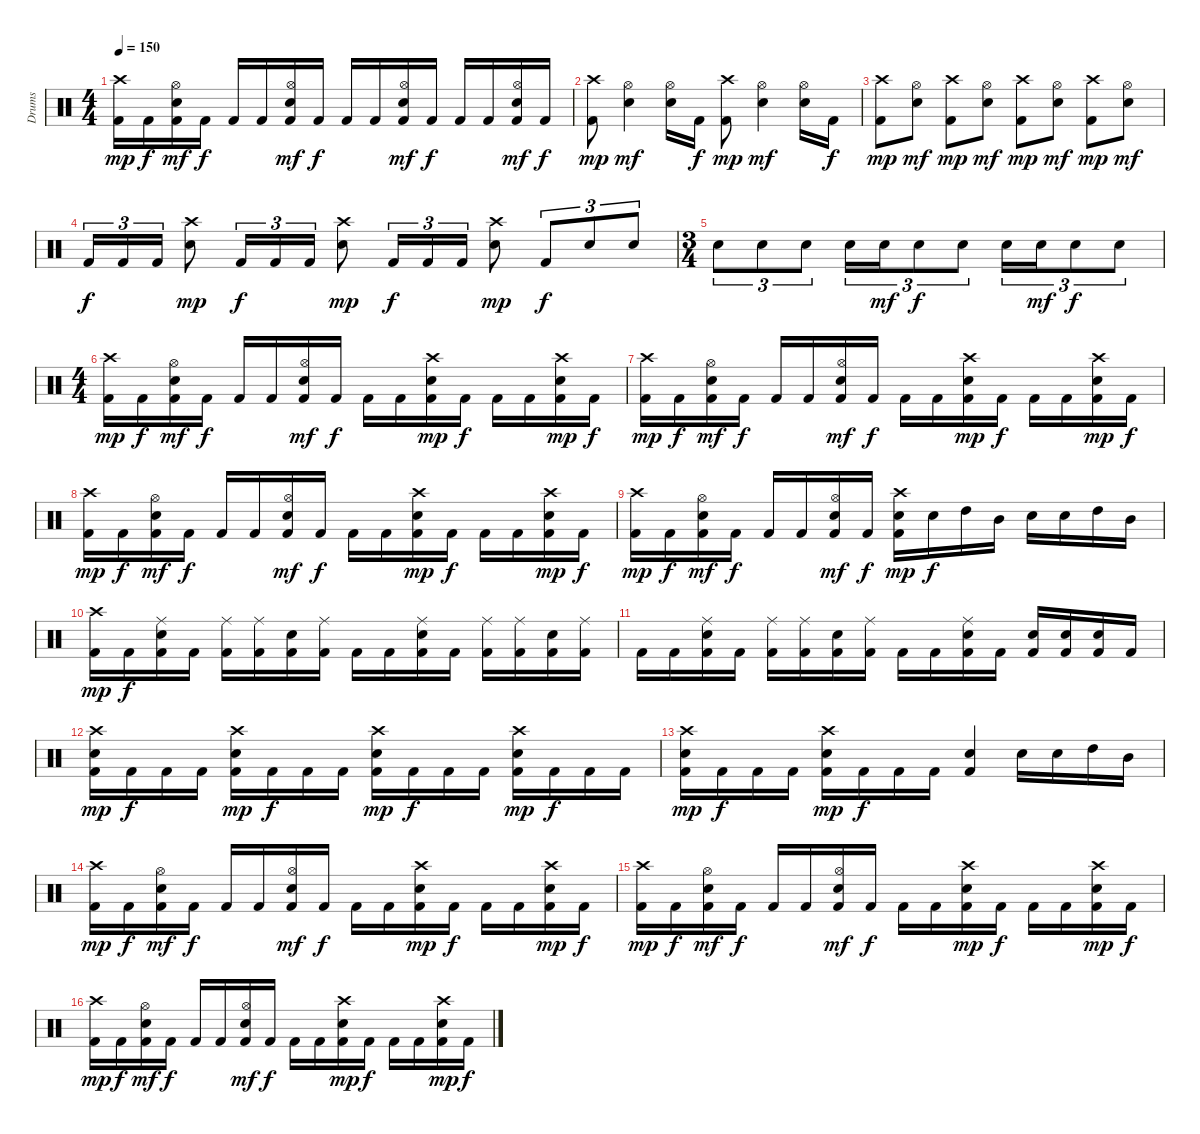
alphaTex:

\track ("Drums" "Drums") {instrument percussion}
\staff {score}
\articulation defaults
\ts (4 4)
\tempo 150
\clef neutral
\ks c
("Crash high (hit)" "Kick (hit) 2").16{dy mp} "Kick (hit) 2".16{dy f} ("Hi-Hat (open)" "Electric Snare (hit)" "Kick (hit) 2").16{dy mf} "Kick (hit) 2".16{dy f} "Kick (hit) 2".16 "Kick (hit) 2".16 ("Hi-Hat (open)" "Electric Snare (hit)" "Kick (hit) 2").16{dy mf} "Kick (hit) 2".16{dy f} "Kick (hit) 2".16 "Kick (hit) 2".16 ("Hi-Hat (open)" "Electric Snare (hit)" "Kick (hit) 2").16{dy mf} "Kick (hit) 2".16{dy f} "Kick (hit) 2".16 "Kick (hit) 2".16 ("Hi-Hat (open)" "Electric Snare (hit)" "Kick (hit) 2").16{dy mf} "Kick (hit) 2".16{dy f} |
("Crash high (hit)" "Kick (hit) 2").8{dy mp} ("Hi-Hat (open)" "Electric Snare (hit)").4{dy mf} ("Hi-Hat (open)" "Electric Snare (hit)").16 "Kick (hit) 2".16{dy f} ("Crash high (hit)" "Kick (hit) 2").8{dy mp} ("Hi-Hat (open)" "Electric Snare (hit)").4{dy mf} ("Hi-Hat (open)" "Electric Snare (hit)").16 "Kick (hit) 2".16{dy f} |
("Crash high (hit)" "Kick (hit) 2").8{dy mp} ("Hi-Hat (open)" "Electric Snare (hit)").8{dy mf} ("Crash high (hit)" "Kick (hit) 2").8{dy mp} ("Hi-Hat (open)" "Electric Snare (hit)").8{dy mf} ("Crash high (hit)" "Kick (hit) 2").8{dy mp} ("Hi-Hat (open)" "Electric Snare (hit)").8{dy mf} ("Crash high (hit)" "Kick (hit) 2").8{dy mp} ("Hi-Hat (open)" "Electric Snare (hit)").8{dy mf} |
"Kick (hit) 2".16{tu (3 2) dy f} "Kick (hit) 2".16{tu (3 2)} "Kick (hit) 2".16{tu (3 2)} ("Crash high (hit)" "Electric Snare (hit)").8{dy mp} "Kick (hit) 2".16{tu (3 2) dy f} "Kick (hit) 2".16{tu (3 2)} "Kick (hit) 2".16{tu (3 2)} ("Crash high (hit)" "Electric Snare (hit)").8{dy mp} "Kick (hit) 2".16{tu (3 2) dy f} "Kick (hit) 2".16{tu (3 2)} "Kick (hit) 2".16{tu (3 2)} ("Crash high (hit)" "Electric Snare (hit)").8{dy mp} "Kick (hit) 2".8{tu (3 2) dy f} "Electric Snare (hit)".8{tu (3 2)} "Electric Snare (hit)".8{tu (3 2)} |
\ts (3 4)
"Electric Snare (hit)".8{tu (3 2)} "Electric Snare (hit)".8{tu (3 2)} "Electric Snare (hit)".8{tu (3 2)} "Electric Snare (hit)".16{tu (3 2)} "Electric Snare (hit)".16{tu (3 2) dy mf} "Electric Snare (hit)".8{tu (3 2) dy f} "Electric Snare (hit)".8{tu (3 2)} "Electric Snare (hit)".16{tu (3 2)} "Electric Snare (hit)".16{tu (3 2) dy mf} "Electric Snare (hit)".8{tu (3 2) dy f} "Electric Snare (hit)".8{tu (3 2)} |
\ts (4 4)
("Crash high (hit)" "Kick (hit) 2").16{dy mp} "Kick (hit) 2".16{dy f} ("Hi-Hat (open)" "Electric Snare (hit)" "Kick (hit) 2").16{dy mf} "Kick (hit) 2".16{dy f} "Kick (hit) 2".16 "Kick (hit) 2".16 ("Hi-Hat (open)" "Electric Snare (hit)" "Kick (hit) 2").16{dy mf} "Kick (hit) 2".16{dy f} "Kick (hit) 2".16 "Kick (hit) 2".16 ("Crash high (hit)" "Electric Snare (hit)" "Kick (hit) 2").16{dy mp} "Kick (hit) 2".16{dy f} "Kick (hit) 2".16 "Kick (hit) 2".16 ("Crash high (hit)" "Electric Snare (hit)" "Kick (hit) 2").16{dy mp} "Kick (hit) 2".16{dy f} |
("Crash high (hit)" "Kick (hit) 2").16{dy mp} "Kick (hit) 2".16{dy f} ("Hi-Hat (open)" "Electric Snare (hit)" "Kick (hit) 2").16{dy mf} "Kick (hit) 2".16{dy f} "Kick (hit) 2".16 "Kick (hit) 2".16 ("Hi-Hat (open)" "Electric Snare (hit)" "Kick (hit) 2").16{dy mf} "Kick (hit) 2".16{dy f} "Kick (hit) 2".16 "Kick (hit) 2".16 ("Crash high (hit)" "Electric Snare (hit)" "Kick (hit) 2").16{dy mp} "Kick (hit) 2".16{dy f} "Kick (hit) 2".16 "Kick (hit) 2".16 ("Crash high (hit)" "Electric Snare (hit)" "Kick (hit) 2").16{dy mp} "Kick (hit) 2".16{dy f} |
("Crash high (hit)" "Kick (hit) 2").16{dy mp} "Kick (hit) 2".16{dy f} ("Hi-Hat (open)" "Electric Snare (hit)" "Kick (hit) 2").16{dy mf} "Kick (hit) 2".16{dy f} "Kick (hit) 2".16 "Kick (hit) 2".16 ("Hi-Hat (open)" "Electric Snare (hit)" "Kick (hit) 2").16{dy mf} "Kick (hit) 2".16{dy f} "Kick (hit) 2".16 "Kick (hit) 2".16 ("Crash high (hit)" "Electric Snare (hit)" "Kick (hit) 2").16{dy mp} "Kick (hit) 2".16{dy f} "Kick (hit) 2".16 "Kick (hit) 2".16 ("Crash high (hit)" "Electric Snare (hit)" "Kick (hit) 2").16{dy mp} "Kick (hit) 2".16{dy f} |
("Crash high (hit)" "Kick (hit) 2").16{dy mp} "Kick (hit) 2".16{dy f} ("Hi-Hat (open)" "Electric Snare (hit)" "Kick (hit) 2").16{dy mf} "Kick (hit) 2".16{dy f} "Kick (hit) 2".16 "Kick (hit) 2".16 ("Hi-Hat (open)" "Electric Snare (hit)" "Kick (hit) 2").16{dy mf} "Kick (hit) 2".16{dy f} ("Crash high (hit)" "Electric Snare (hit)" "Kick (hit) 2").16{dy mp} "Electric Snare (hit)".16{dy f} "High Tom (hit)".16 "Mid Tom (hit)".16 "Electric Snare (hit)".16 "Electric Snare (hit)".16 "High Tom (hit)".16 "Mid Tom (hit)".16 |
("Crash high (hit)" "Kick (hit) 2").16{dy mp} "Kick (hit) 2".16{dy f} ("Ride (middle)" "Electric Snare (hit)" "Kick (hit) 2").16 "Kick (hit) 2".16 ("Ride (middle)" "Kick (hit) 2").16 ("Ride (middle)" "Kick (hit) 2").16 ("Electric Snare (hit)" "Kick (hit) 2").16 ("Ride (middle)" "Kick (hit) 2").16 "Kick (hit) 2".16 "Kick (hit) 2".16 ("Ride (middle)" "Electric Snare (hit)" "Kick (hit) 2").16 "Kick (hit) 2".16 ("Ride (middle)" "Kick (hit) 2").16 ("Ride (middle)" "Kick (hit) 2").16 ("Electric Snare (hit)" "Kick (hit) 2").16 ("Ride (middle)" "Kick (hit) 2").16 |
"Kick (hit) 2".16 "Kick (hit) 2".16 ("Ride (middle)" "Electric Snare (hit)" "Kick (hit) 2").16 "Kick (hit) 2".16 ("Ride (middle)" "Kick (hit) 2").16 ("Ride (middle)" "Kick (hit) 2").16 ("Electric Snare (hit)" "Kick (hit) 2").16 ("Ride (middle)" "Kick (hit) 2").16 "Kick (hit) 2".16 "Kick (hit) 2".16 ("Ride (middle)" "Electric Snare (hit)" "Kick (hit) 2").16 "Kick (hit) 2".16 ("Electric Snare (hit)" "Kick (hit) 2").16 ("Electric Snare (hit)" "Kick (hit) 2").16 ("Electric Snare (hit)" "Kick (hit) 2").16 "Kick (hit) 2".16 |
("Crash high (hit)" "Electric Snare (hit)" "Kick (hit) 2").16{dy mp} "Kick (hit) 2".16{dy f} "Kick (hit) 2".16 "Kick (hit) 2".16 ("Crash high (hit)" "Electric Snare (hit)" "Kick (hit) 2").16{dy mp} "Kick (hit) 2".16{dy f} "Kick (hit) 2".16 "Kick (hit) 2".16 ("Crash high (hit)" "Electric Snare (hit)" "Kick (hit) 2").16{dy mp} "Kick (hit) 2".16{dy f} "Kick (hit) 2".16 "Kick (hit) 2".16 ("Crash high (hit)" "Electric Snare (hit)" "Kick (hit) 2").16{dy mp} "Kick (hit) 2".16{dy f} "Kick (hit) 2".16 "Kick (hit) 2".16 |
("Crash high (hit)" "Electric Snare (hit)" "Kick (hit) 2").16{dy mp} "Kick (hit) 2".16{dy f} "Kick (hit) 2".16 "Kick (hit) 2".16 ("Crash high (hit)" "Electric Snare (hit)" "Kick (hit) 2").16{dy mp} "Kick (hit) 2".16{dy f} "Kick (hit) 2".16 "Kick (hit) 2".16 ("Electric Snare (hit)" "Kick (hit) 2").4 "Electric Snare (hit)".16 "Electric Snare (hit)".16 "High Tom (hit)".16 "Mid Tom (hit)".16 |
("Crash high (hit)" "Kick (hit) 2").16{dy mp} "Kick (hit) 2".16{dy f} ("Hi-Hat (open)" "Electric Snare (hit)" "Kick (hit) 2").16{dy mf} "Kick (hit) 2".16{dy f} "Kick (hit) 2".16 "Kick (hit) 2".16 ("Hi-Hat (open)" "Electric Snare (hit)" "Kick (hit) 2").16{dy mf} "Kick (hit) 2".16{dy f} "Kick (hit) 2".16 "Kick (hit) 2".16 ("Crash high (hit)" "Electric Snare (hit)" "Kick (hit) 2").16{dy mp} "Kick (hit) 2".16{dy f} "Kick (hit) 2".16 "Kick (hit) 2".16 ("Crash high (hit)" "Electric Snare (hit)" "Kick (hit) 2").16{dy mp} "Kick (hit) 2".16{dy f} |
("Crash high (hit)" "Kick (hit) 2").16{dy mp} "Kick (hit) 2".16{dy f} ("Hi-Hat (open)" "Electric Snare (hit)" "Kick (hit) 2").16{dy mf} "Kick (hit) 2".16{dy f} "Kick (hit) 2".16 "Kick (hit) 2".16 ("Hi-Hat (open)" "Electric Snare (hit)" "Kick (hit) 2").16{dy mf} "Kick (hit) 2".16{dy f} "Kick (hit) 2".16 "Kick (hit) 2".16 ("Crash high (hit)" "Electric Snare (hit)" "Kick (hit) 2").16{dy mp} "Kick (hit) 2".16{dy f} "Kick (hit) 2".16 "Kick (hit) 2".16 ("Crash high (hit)" "Electric Snare (hit)" "Kick (hit) 2").16{dy mp} "Kick (hit) 2".16{dy f} |
("Crash high (hit)" "Kick (hit) 2").16{dy mp} "Kick (hit) 2".16{dy f} ("Hi-Hat (open)" "Electric Snare (hit)" "Kick (hit) 2").16{dy mf} "Kick (hit) 2".16{dy f} "Kick (hit) 2".16 "Kick (hit) 2".16 ("Hi-Hat (open)" "Electric Snare (hit)" "Kick (hit) 2").16{dy mf} "Kick (hit) 2".16{dy f} "Kick (hit) 2".16 "Kick (hit) 2".16 ("Crash high (hit)" "Electric Snare (hit)" "Kick (hit) 2").16{dy mp} "Kick (hit) 2".16{dy f} "Kick (hit) 2".16 "Kick (hit) 2".16 ("Crash high (hit)" "Electric Snare (hit)" "Kick (hit) 2").16{dy mp} "Kick (hit) 2".16{dy f}
